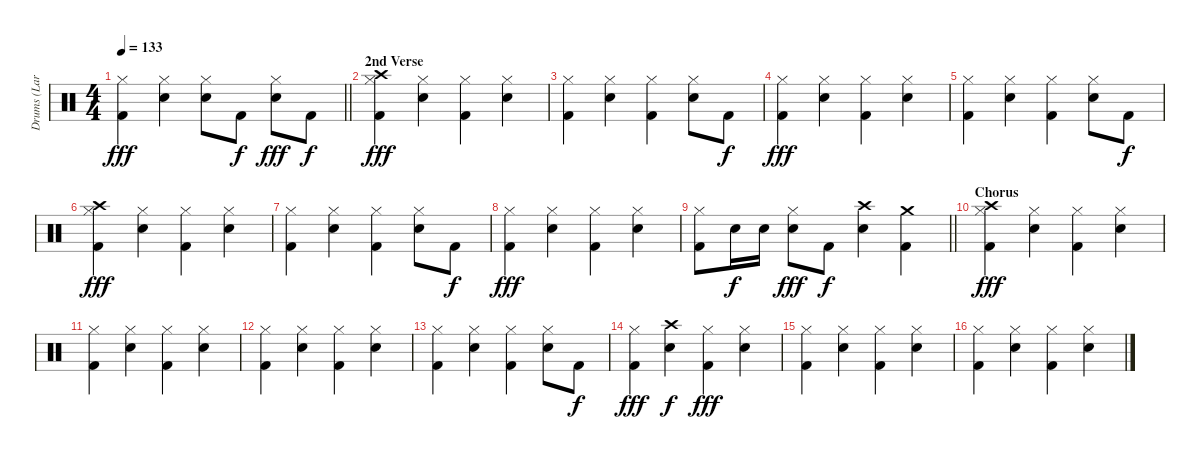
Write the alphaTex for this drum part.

\track ("Drums (Lars)" "Drums (Lar") {instrument percussion}
\staff {score}
\articulation defaults
\ts (4 4)
\tempo 133
\clef neutral
\barLineRight lightlight
\ks c
("Hi-Hat (closed)" "Kick (hit) 2").4{dy fff} ("Hi-Hat (closed)" "Snare (hit) 2").4 ("Hi-Hat (closed)" "Snare (hit) 2").8 "Kick (hit) 2".8{dy f} ("Hi-Hat (closed)" "Snare (hit) 2").8{dy fff} "Kick (hit) 2".8{dy f} |
\section ("" "2nd Verse")
("Crash high (hit)" "Hi-Hat (closed)" "Kick (hit) 2").4{dy fff} ("Hi-Hat (closed)" "Snare (hit) 2").4 ("Hi-Hat (closed)" "Kick (hit) 2").4 ("Hi-Hat (closed)" "Snare (hit) 2").4 |
("Hi-Hat (closed)" "Kick (hit) 2").4 ("Hi-Hat (closed)" "Snare (hit) 2").4 ("Hi-Hat (closed)" "Kick (hit) 2").4 ("Hi-Hat (closed)" "Snare (hit) 2").8 "Kick (hit) 2".8{dy f} |
("Hi-Hat (closed)" "Kick (hit) 2").4{dy fff} ("Hi-Hat (closed)" "Snare (hit) 2").4 ("Hi-Hat (closed)" "Kick (hit) 2").4 ("Hi-Hat (closed)" "Snare (hit) 2").4 |
("Hi-Hat (closed)" "Kick (hit) 2").4 ("Hi-Hat (closed)" "Snare (hit) 2").4 ("Hi-Hat (closed)" "Kick (hit) 2").4 ("Hi-Hat (closed)" "Snare (hit) 2").8 "Kick (hit) 2".8{dy f} |
("Crash high (hit)" "Hi-Hat (closed)" "Kick (hit) 2").4{dy fff} ("Hi-Hat (closed)" "Snare (hit) 2").4 ("Hi-Hat (closed)" "Kick (hit) 2").4 ("Hi-Hat (closed)" "Snare (hit) 2").4 |
("Hi-Hat (closed)" "Kick (hit) 2").4 ("Hi-Hat (closed)" "Snare (hit) 2").4 ("Hi-Hat (closed)" "Kick (hit) 2").4 ("Hi-Hat (closed)" "Snare (hit) 2").8 "Kick (hit) 2".8{dy f} |
("Hi-Hat (closed)" "Kick (hit) 2").4{dy fff} ("Hi-Hat (closed)" "Snare (hit) 2").4 ("Hi-Hat (closed)" "Kick (hit) 2").4 ("Hi-Hat (closed)" "Snare (hit) 2").4 |
\barLineRight lightlight
("Hi-Hat (closed)" "Kick (hit) 2").8 "Snare (hit) 2".16{dy f} "Snare (hit) 2".16 ("Hi-Hat (closed)" "Snare (hit) 2").8{dy fff} "Kick (hit) 2".8{dy f} ("Crash high (hit)" "Snare (hit) 2").4 ("Crash medium (hit)" "Kick (hit) 2").4 |
\section ("" "Chorus")
("Crash high (hit)" "Hi-Hat (closed)" "Kick (hit) 2").4{dy fff} ("Hi-Hat (closed)" "Snare (hit) 2").4 ("Hi-Hat (closed)" "Kick (hit) 2").4 ("Hi-Hat (closed)" "Snare (hit) 2").4 |
("Hi-Hat (closed)" "Kick (hit) 2").4 ("Hi-Hat (closed)" "Snare (hit) 2").4 ("Hi-Hat (closed)" "Kick (hit) 2").4 ("Hi-Hat (closed)" "Snare (hit) 2").4 |
("Hi-Hat (closed)" "Kick (hit) 2").4 ("Hi-Hat (closed)" "Snare (hit) 2").4 ("Hi-Hat (closed)" "Kick (hit) 2").4 ("Hi-Hat (closed)" "Snare (hit) 2").4 |
("Hi-Hat (closed)" "Kick (hit) 2").4 ("Hi-Hat (closed)" "Snare (hit) 2").4 ("Hi-Hat (closed)" "Kick (hit) 2").4 ("Hi-Hat (closed)" "Snare (hit) 2").8 "Kick (hit) 2".8{dy f} |
("Hi-Hat (closed)" "Kick (hit) 2").4{dy fff} ("Crash high (hit)" "Snare (hit) 2").4{dy f} ("Hi-Hat (closed)" "Kick (hit) 2").4{dy fff} ("Hi-Hat (closed)" "Snare (hit) 2").4 |
("Hi-Hat (closed)" "Kick (hit) 2").4 ("Hi-Hat (closed)" "Snare (hit) 2").4 ("Hi-Hat (closed)" "Kick (hit) 2").4 ("Hi-Hat (closed)" "Snare (hit) 2").4 |
("Hi-Hat (closed)" "Kick (hit) 2").4 ("Hi-Hat (closed)" "Snare (hit) 2").4 ("Hi-Hat (closed)" "Kick (hit) 2").4 ("Hi-Hat (closed)" "Snare (hit) 2").4
